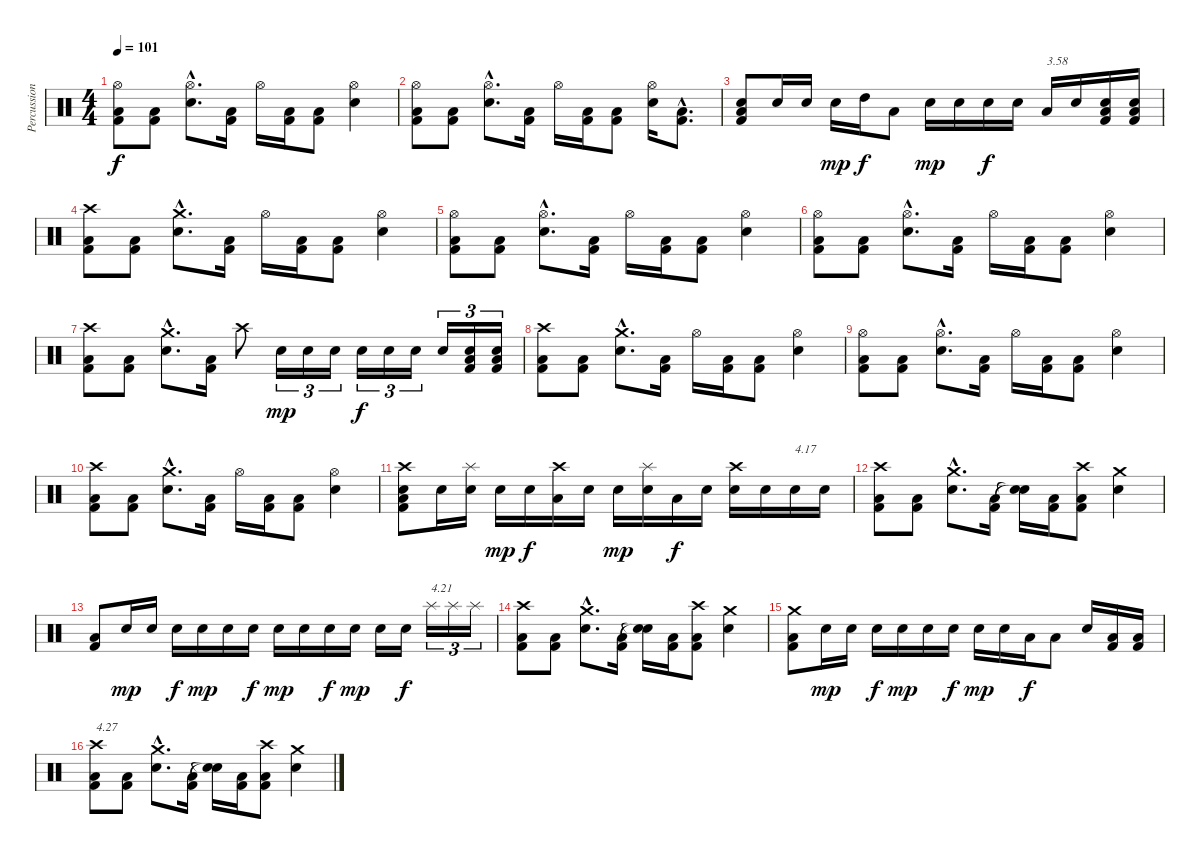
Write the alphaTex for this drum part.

\track ("Percussion" "Percussion") {instrument percussion}
\staff {score}
\articulation defaults
\ts (4 4)
\tempo 101
\clef neutral
\ks c
("Kick (hit) 2" "Low Floor Tom (hit)" "Hi-Hat (open)").8{dy f} ("Kick (hit) 2" "Low Floor Tom (hit)").8 ("Snare (hit) 2"{hac} "Hi-Hat (open)"{hac}).8{d} ("Kick (hit) 2" "Low Floor Tom (hit)").16 "Hi-Hat (open)".16 ("Kick (hit) 2" "Low Floor Tom (hit)").16 ("Kick (hit) 2" "Low Floor Tom (hit)").8 ("Snare (hit) 2" "Hi-Hat (open)").4 |
("Kick (hit) 2" "Low Floor Tom (hit)" "Hi-Hat (open)").8 ("Kick (hit) 2" "Low Floor Tom (hit)").8 ("Snare (hit) 2"{hac} "Hi-Hat (open)"{hac}).8{d} ("Kick (hit) 2" "Low Floor Tom (hit)").16 "Hi-Hat (open)".16 ("Kick (hit) 2" "Low Floor Tom (hit)").16 ("Kick (hit) 2" "Low Floor Tom (hit)").8 ("Snare (hit) 2" "Hi-Hat (open)").16 ("Kick (hit) 2"{hac} "Low Floor Tom (hit)"{hac}).8{d} |
("Kick (hit) 2" "Low Floor Tom (hit)" "Snare (hit) 2").8 "Snare (hit) 2".16 "Snare (hit) 2".16 "Snare (hit) 2".16{dy mp} "High Tom (hit)".16{dy f} "Low Tom (hit)".8 "Snare (hit) 2".16{dy mp} "Snare (hit) 2".16 "Snare (hit) 2".16{dy f} "Snare (hit) 2".16 "Low Tom (hit)".16{txt "3.58"} "Snare (hit) 2".16 ("Kick (hit) 2" "Low Floor Tom (hit)" "Snare (hit) 2").16 ("Kick (hit) 2" "Low Floor Tom (hit)" "Snare (hit) 2").16 |
("Kick (hit) 2" "Low Floor Tom (hit)" "Crash high (hit)").8 ("Kick (hit) 2" "Low Floor Tom (hit)").8 ("Snare (hit) 2"{hac} "Crash medium (hit)"{hac}).8{d} ("Kick (hit) 2" "Low Floor Tom (hit)").16 "Hi-Hat (open)".16 ("Kick (hit) 2" "Low Floor Tom (hit)").16 ("Kick (hit) 2" "Low Floor Tom (hit)").8 ("Snare (hit) 2" "Hi-Hat (open)").4 |
("Kick (hit) 2" "Low Floor Tom (hit)" "Hi-Hat (open)").8 ("Kick (hit) 2" "Low Floor Tom (hit)").8 ("Snare (hit) 2"{hac} "Hi-Hat (open)"{hac}).8{d} ("Kick (hit) 2" "Low Floor Tom (hit)").16 "Hi-Hat (open)".16 ("Kick (hit) 2" "Low Floor Tom (hit)").16 ("Kick (hit) 2" "Low Floor Tom (hit)").8 ("Snare (hit) 2" "Hi-Hat (open)").4 |
("Kick (hit) 2" "Low Floor Tom (hit)" "Hi-Hat (open)").8 ("Kick (hit) 2" "Low Floor Tom (hit)").8 ("Snare (hit) 2"{hac} "Hi-Hat (open)"{hac}).8{d} ("Kick (hit) 2" "Low Floor Tom (hit)").16 "Hi-Hat (open)".16 ("Kick (hit) 2" "Low Floor Tom (hit)").16 ("Kick (hit) 2" "Low Floor Tom (hit)").8 ("Snare (hit) 2" "Hi-Hat (open)").4 |
("Kick (hit) 2" "Low Floor Tom (hit)" "Crash high (hit)").8 ("Kick (hit) 2" "Low Floor Tom (hit)").8 ("Snare (hit) 2"{hac} "Crash medium (hit)"{hac}).8{d} ("Kick (hit) 2" "Low Floor Tom (hit)").16 "Crash high (hit)".8 "Snare (hit) 2".16{tu (3 2) dy mp} "Snare (hit) 2".16{tu (3 2)} "Snare (hit) 2".16{tu (3 2)} "Snare (hit) 2".16{tu (3 2) dy f} "Snare (hit) 2".16{tu (3 2)} "Snare (hit) 2".16{tu (3 2)} "Snare (hit) 2".16{tu (3 2)} ("Kick (hit) 2" "Low Floor Tom (hit)" "Snare (hit) 2").16{tu (3 2)} ("Kick (hit) 2" "Low Floor Tom (hit)" "Snare (hit) 2").16{tu (3 2)} |
("Kick (hit) 2" "Low Floor Tom (hit)" "Crash high (hit)").8 ("Kick (hit) 2" "Low Floor Tom (hit)").8 ("Snare (hit) 2"{hac} "Crash medium (hit)"{hac}).8{d} ("Kick (hit) 2" "Low Floor Tom (hit)").16 "Hi-Hat (open)".16 ("Kick (hit) 2" "Low Floor Tom (hit)").16 ("Kick (hit) 2" "Low Floor Tom (hit)").8 ("Snare (hit) 2" "Hi-Hat (open)").4 |
("Kick (hit) 2" "Low Floor Tom (hit)" "Hi-Hat (open)").8 ("Kick (hit) 2" "Low Floor Tom (hit)").8 ("Snare (hit) 2"{hac} "Hi-Hat (open)"{hac}).8{d} ("Kick (hit) 2" "Low Floor Tom (hit)").16 "Hi-Hat (open)".16 ("Kick (hit) 2" "Low Floor Tom (hit)").16 ("Kick (hit) 2" "Low Floor Tom (hit)").8 ("Snare (hit) 2" "Hi-Hat (open)").4 |
("Kick (hit) 2" "Low Floor Tom (hit)" "Crash high (hit)").8 ("Kick (hit) 2" "Low Floor Tom (hit)").8 ("Snare (hit) 2"{hac} "Crash medium (hit)"{hac}).8{d} ("Kick (hit) 2" "Low Floor Tom (hit)").16 "Hi-Hat (open)".16 ("Kick (hit) 2" "Low Floor Tom (hit)").16 ("Kick (hit) 2" "Low Floor Tom (hit)").8 ("Snare (hit) 2" "Hi-Hat (open)").4 |
("Kick (hit) 2" "Low Floor Tom (hit)" "Snare (hit) 2" "Crash high (hit)").8 "Snare (hit) 2".16 ("Snare (hit) 2" "Splash (hit)").16 "Snare (hit) 2".16{dy mp} "Snare (hit) 2".16{dy f} ("Low Tom (hit)" "Crash high (hit)").16 "Snare (hit) 2".16 "Snare (hit) 2".16{dy mp} ("Snare (hit) 2" "Splash (hit)").16 "Low Tom (hit)".16{dy f} "Snare (hit) 2".16 ("Snare (hit) 2" "Crash high (hit)").16 "Snare (hit) 2".16 "Snare (hit) 2".16{txt "4.17"} "Snare (hit) 2".16 |
("Kick (hit) 2" "Low Floor Tom (hit)" "Crash high (hit)").8 ("Kick (hit) 2" "Low Floor Tom (hit)").8 ("Snare (hit) 2"{hac} "Crash medium (hit)"{hac}).8{d} ("Kick (hit) 2" "Low Floor Tom (hit)").16 ("Snare (hit)"{t} "Snare (hit)"{t}).16 ("Kick (hit) 2" "Low Floor Tom (hit)").16 ("Kick (hit) 2" "Low Floor Tom (hit)" "Crash high (hit)").8 ("Snare (hit) 2" "Crash medium (hit)").4 |
("Kick (hit) 2" "Low Floor Tom (hit)").8 "Snare (hit) 2".16{dy mp} "Snare (hit) 2".16 "Snare (hit) 2".16{dy f} "Snare (hit) 2".16{dy mp} "Snare (hit) 2".16 "Snare (hit) 2".16{dy f} "Snare (hit) 2".16{dy mp} "Snare (hit) 2".16 "Snare (hit) 2".16{dy f} "Snare (hit) 2".16{dy mp} "Snare (hit) 2".16 "Snare (hit) 2".16{dy f} "Splash (hit)".16{tu (3 2) txt "4.21"} "Splash (hit)".16{tu (3 2)} "Splash (hit)".16{tu (3 2)} |
("Kick (hit) 2" "Low Floor Tom (hit)" "Crash high (hit)").8 ("Kick (hit) 2" "Low Floor Tom (hit)").8 ("Snare (hit) 2"{hac} "Crash medium (hit)"{hac}).8{d} ("Kick (hit) 2" "Low Floor Tom (hit)").16 ("Snare (hit)"{t} "Snare (hit)"{t}).16 ("Kick (hit) 2" "Low Floor Tom (hit)").16 ("Kick (hit) 2" "Low Floor Tom (hit)" "Crash high (hit)").8 ("Snare (hit) 2" "Crash medium (hit)").4 |
("Kick (hit) 2" "Low Floor Tom (hit)" "Crash medium (hit)").8 "Snare (hit) 2".16{dy mp} "Snare (hit) 2".16 "Snare (hit) 2".16{dy f} "Snare (hit) 2".16{dy mp} "Snare (hit) 2".16 "Snare (hit) 2".16{dy f} "Snare (hit) 2".16{dy mp} "Snare (hit) 2".16 "Low Tom (hit)".16{dy f} "Low Tom (hit)".8 "Snare (hit) 2".16 ("Kick (hit) 2" "Low Floor Tom (hit)").16 ("Kick (hit) 2" "Low Floor Tom (hit)").16 |
("Kick (hit) 2" "Low Floor Tom (hit)" "Crash high (hit)").8{txt "4.27"} ("Kick (hit) 2" "Low Floor Tom (hit)").8 ("Snare (hit) 2"{hac} "Crash medium (hit)"{hac}).8{d} ("Kick (hit) 2" "Low Floor Tom (hit)").16 ("Snare (hit)"{t} "Snare (hit)"{t}).16 ("Kick (hit) 2" "Low Floor Tom (hit)").16 ("Kick (hit) 2" "Low Floor Tom (hit)" "Crash high (hit)").8 ("Snare (hit) 2" "Crash medium (hit)").4
